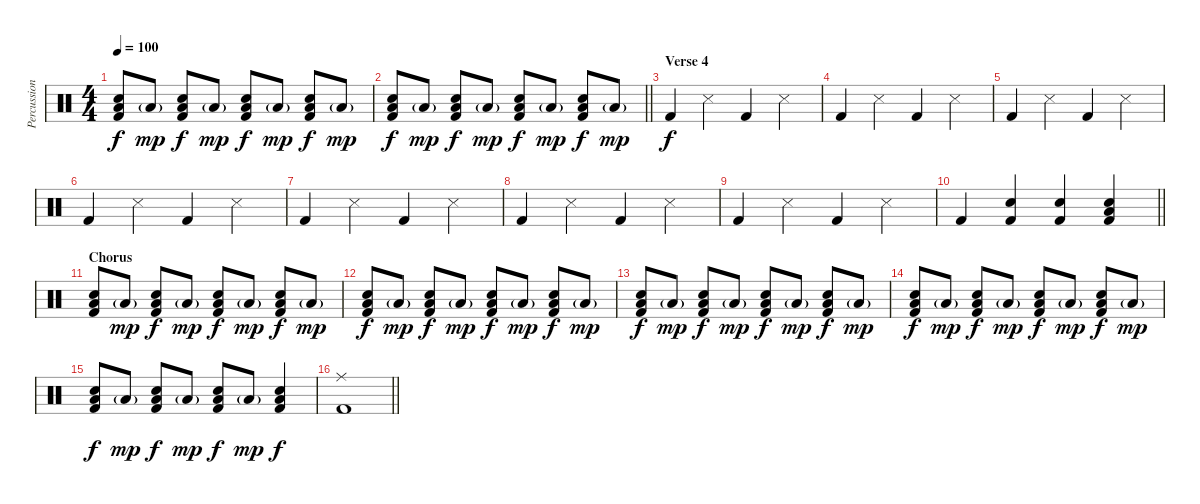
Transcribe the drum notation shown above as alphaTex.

\track ("Percussion" "Percussion") {instrument percussion}
\staff {score}
\articulation defaults
\ts (4 4)
\tempo 100
\clef neutral
\ks c
("Hand Clap (hit)" "Low Tom (hit)" "Kick (hit) 2").8{dy f} "Low Tom (hit)"{g}.8{dy mp} ("Hand Clap (hit)" "Low Tom (hit)" "Kick (hit) 2").8{dy f} "Low Tom (hit)"{g}.8{dy mp} ("Hand Clap (hit)" "Low Tom (hit)" "Kick (hit) 2").8{dy f} "Low Tom (hit)"{g}.8{dy mp} ("Hand Clap (hit)" "Low Tom (hit)" "Kick (hit) 2").8{dy f} "Low Tom (hit)"{g}.8{dy mp} |
\barLineRight lightlight
("Hand Clap (hit)" "Low Tom (hit)" "Kick (hit) 2").8{dy f} "Low Tom (hit)"{g}.8{dy mp} ("Hand Clap (hit)" "Low Tom (hit)" "Kick (hit) 2").8{dy f} "Low Tom (hit)"{g}.8{dy mp} ("Hand Clap (hit)" "Low Tom (hit)" "Kick (hit) 2").8{dy f} "Low Tom (hit)"{g}.8{dy mp} ("Hand Clap (hit)" "Low Tom (hit)" "Kick (hit) 2").8{dy f} "Low Tom (hit)"{g}.8{dy mp} |
\section ("" "Verse 4")
"Kick (hit) 2".4{dy f} "Snare (side stick) 3".4 "Kick (hit) 2".4 "Snare (side stick) 3".4 |
"Kick (hit) 2".4 "Snare (side stick) 3".4 "Kick (hit) 2".4 "Snare (side stick) 3".4 |
"Kick (hit) 2".4 "Snare (side stick) 3".4 "Kick (hit) 2".4 "Snare (side stick) 3".4 |
"Kick (hit) 2".4 "Snare (side stick) 3".4 "Kick (hit) 2".4 "Snare (side stick) 3".4 |
"Kick (hit) 2".4 "Snare (side stick) 3".4 "Kick (hit) 2".4 "Snare (side stick) 3".4 |
"Kick (hit) 2".4 "Snare (side stick) 3".4 "Kick (hit) 2".4 "Snare (side stick) 3".4 |
"Kick (hit) 2".4 "Snare (side stick) 3".4 "Kick (hit) 2".4 "Snare (side stick) 3".4 |
\barLineRight lightlight "Kick (hit) 2".4
("Hand Clap (hit)" "Kick (hit) 2").4 ("Hand Clap (hit)" "Kick (hit) 2").4 ("Hand Clap (hit)" "Low Tom (hit)" "Kick (hit) 2").4 |
\section ("" "Chorus")
("Hand Clap (hit)" "Low Tom (hit)" "Kick (hit) 2").8 "Low Tom (hit)"{g}.8{dy mp} ("Hand Clap (hit)" "Low Tom (hit)" "Kick (hit) 2").8{dy f} "Low Tom (hit)"{g}.8{dy mp} ("Hand Clap (hit)" "Low Tom (hit)" "Kick (hit) 2").8{dy f} "Low Tom (hit)"{g}.8{dy mp} ("Hand Clap (hit)" "Low Tom (hit)" "Kick (hit) 2").8{dy f} "Low Tom (hit)"{g}.8{dy mp} |
("Hand Clap (hit)" "Low Tom (hit)" "Kick (hit) 2").8{dy f} "Low Tom (hit)"{g}.8{dy mp} ("Hand Clap (hit)" "Low Tom (hit)" "Kick (hit) 2").8{dy f} "Low Tom (hit)"{g}.8{dy mp} ("Hand Clap (hit)" "Low Tom (hit)" "Kick (hit) 2").8{dy f} "Low Tom (hit)"{g}.8{dy mp} ("Hand Clap (hit)" "Low Tom (hit)" "Kick (hit) 2").8{dy f} "Low Tom (hit)"{g}.8{dy mp} |
("Hand Clap (hit)" "Low Tom (hit)" "Kick (hit) 2").8{dy f} "Low Tom (hit)"{g}.8{dy mp} ("Hand Clap (hit)" "Low Tom (hit)" "Kick (hit) 2").8{dy f} "Low Tom (hit)"{g}.8{dy mp} ("Hand Clap (hit)" "Low Tom (hit)" "Kick (hit) 2").8{dy f} "Low Tom (hit)"{g}.8{dy mp} ("Hand Clap (hit)" "Low Tom (hit)" "Kick (hit) 2").8{dy f} "Low Tom (hit)"{g}.8{dy mp} |
("Hand Clap (hit)" "Low Tom (hit)" "Kick (hit) 2").8{dy f} "Low Tom (hit)"{g}.8{dy mp} ("Hand Clap (hit)" "Low Tom (hit)" "Kick (hit) 2").8{dy f} "Low Tom (hit)"{g}.8{dy mp} ("Hand Clap (hit)" "Low Tom (hit)" "Kick (hit) 2").8{dy f} "Low Tom (hit)"{g}.8{dy mp} ("Hand Clap (hit)" "Low Tom (hit)" "Kick (hit) 2").8{dy f} "Low Tom (hit)"{g}.8{dy mp} |
("Hand Clap (hit)" "Low Tom (hit)" "Kick (hit) 2").8{dy f} "Low Tom (hit)"{g}.8{dy mp} ("Hand Clap (hit)" "Low Tom (hit)" "Kick (hit) 2").8{dy f} "Low Tom (hit)"{g}.8{dy mp} ("Hand Clap (hit)" "Low Tom (hit)" "Kick (hit) 2").8{dy f} "Low Tom (hit)"{g}.8{dy mp} ("Hand Clap (hit)" "Low Tom (hit)" "Kick (hit) 2").4{dy f} |
\barLineRight lightlight
("Ride (middle)" "Kick (hit) 2").1
